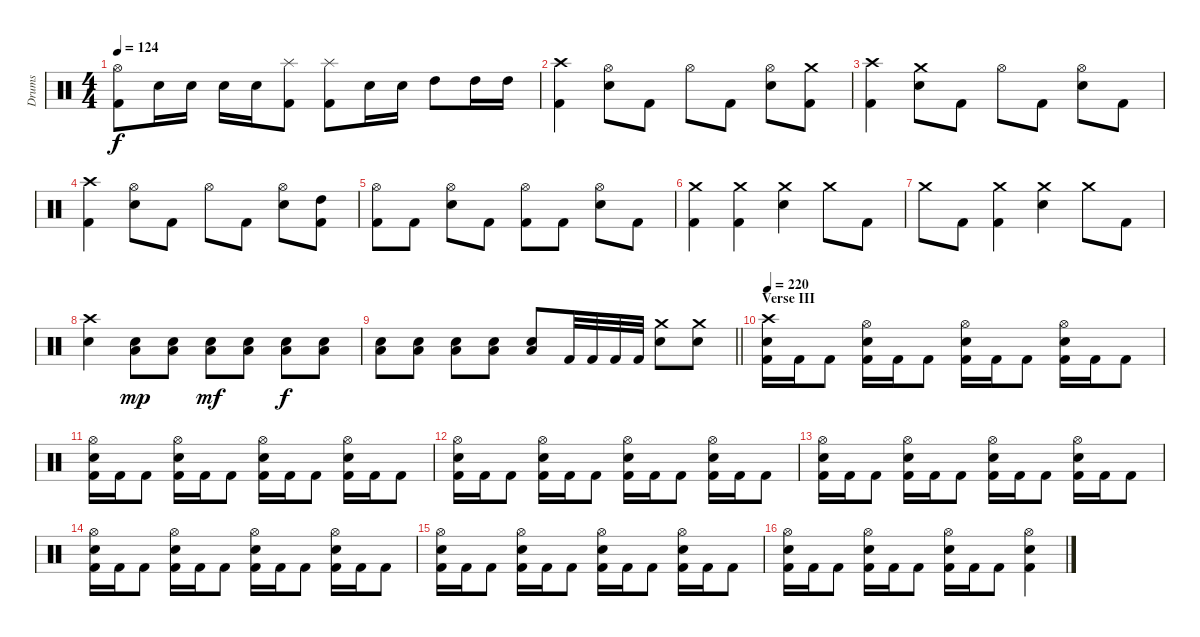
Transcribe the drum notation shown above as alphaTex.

\track ("Drums" "Drums") {instrument percussion}
\staff {score}
\articulation defaults
\ts (4 4)
\tempo 124
\clef neutral
\ks c
("Hi-Hat (open)" "Kick (hit) 2").8{dy f} "Snare (hit) 2".16 "Snare (hit) 2".16 "Snare (hit) 2".16 "Snare (hit) 2".16 ("Splash (hit)" "Kick (hit) 2").8 ("Splash (hit)" "Kick (hit) 2").8 "Snare (hit) 2".16 "Snare (hit) 2".16 "High Tom (hit)".8 "High Tom (hit)".16 "High Tom (hit)".16 |
("Crash high (hit)" "Kick (hit) 2").4 ("Hi-Hat (open)" "Snare (hit) 2").8 "Kick (hit) 2".8 "Hi-Hat (open)".8 "Kick (hit) 2".8 ("Hi-Hat (open)" "Snare (hit) 2").8 ("Crash medium (hit)" "Kick (hit) 2").8 |
("Crash high (hit)" "Kick (hit) 2").4 ("Crash medium (hit)" "Snare (hit) 2").8 "Kick (hit) 2".8 "Hi-Hat (open)".8 "Kick (hit) 2".8 ("Hi-Hat (open)" "Snare (hit) 2").8 "Kick (hit) 2".8 |
("Crash high (hit)" "Kick (hit) 2").4 ("Hi-Hat (open)" "Snare (hit) 2").8 "Kick (hit) 2".8 "Hi-Hat (open)".8 "Kick (hit) 2".8 ("Hi-Hat (open)" "Snare (hit) 2").8 ("High Tom (hit)" "Kick (hit) 2").8 |
("Hi-Hat (open)" "Kick (hit) 2").8 "Kick (hit) 2".8 ("Hi-Hat (open)" "Snare (hit) 2").8 "Kick (hit) 2".8 ("Hi-Hat (open)" "Kick (hit) 2").8 "Kick (hit) 2".8 ("Hi-Hat (open)" "Snare (hit) 2").8 "Kick (hit) 2".8 |
("Crash medium (hit)" "Kick (hit) 2").4 ("Crash medium (hit)" "Kick (hit) 2").4 ("Crash medium (hit)" "Snare (hit) 2").4 "Crash medium (hit)".8 "Kick (hit) 2".8 |
"Crash medium (hit)".8 "Kick (hit) 2".8 ("Crash medium (hit)" "Kick (hit) 2").4 ("Crash medium (hit)" "Snare (hit) 2").4 "Crash medium (hit)".8 "Kick (hit) 2".8 |
("Crash high (hit)" "Snare (hit) 2").4 ("Snare (hit) 2" "Low Tom (hit)").8{dy mp} ("Snare (hit) 2" "Low Tom (hit)").8 ("Snare (hit) 2" "Low Tom (hit)").8{dy mf} ("Snare (hit) 2" "Low Tom (hit)").8 ("Snare (hit) 2" "Low Tom (hit)").8{dy f} ("Snare (hit) 2" "Low Tom (hit)").8 |
\barLineRight lightlight
("Snare (hit) 2" "Low Tom (hit)").8 ("Snare (hit) 2" "Low Tom (hit)").8 ("Snare (hit) 2" "Low Tom (hit)").8 ("Snare (hit) 2" "Low Tom (hit)").8 ("Snare (hit) 2" "Low Tom (hit)").8 "Kick (hit) 2".32 "Kick (hit) 2".32 "Kick (hit) 2".32 "Kick (hit) 2".32 ("Crash medium (hit)" "Snare (hit) 2").8 ("Crash medium (hit)" "Snare (hit) 2").8 |
\section ("" "Verse III")
\tempo 220
("Crash high (hit)" "Snare (hit) 2" "Kick (hit) 2").16 "Kick (hit) 2".16 "Kick (hit) 2".8 ("Hi-Hat (open)" "Snare (hit) 2" "Kick (hit) 2").16 "Kick (hit) 2".16 "Kick (hit) 2".8 ("Hi-Hat (open)" "Snare (hit) 2" "Kick (hit) 2").16 "Kick (hit) 2".16 "Kick (hit) 2".8 ("Hi-Hat (open)" "Snare (hit) 2" "Kick (hit) 2").16 "Kick (hit) 2".16 "Kick (hit) 2".8 |
("Hi-Hat (open)" "Snare (hit) 2" "Kick (hit) 2").16 "Kick (hit) 2".16 "Kick (hit) 2".8 ("Hi-Hat (open)" "Snare (hit) 2" "Kick (hit) 2").16 "Kick (hit) 2".16 "Kick (hit) 2".8 ("Hi-Hat (open)" "Snare (hit) 2" "Kick (hit) 2").16 "Kick (hit) 2".16 "Kick (hit) 2".8 ("Hi-Hat (open)" "Snare (hit) 2" "Kick (hit) 2").16 "Kick (hit) 2".16 "Kick (hit) 2".8 |
("Hi-Hat (open)" "Snare (hit) 2" "Kick (hit) 2").16 "Kick (hit) 2".16 "Kick (hit) 2".8 ("Hi-Hat (open)" "Snare (hit) 2" "Kick (hit) 2").16 "Kick (hit) 2".16 "Kick (hit) 2".8 ("Hi-Hat (open)" "Snare (hit) 2" "Kick (hit) 2").16 "Kick (hit) 2".16 "Kick (hit) 2".8 ("Hi-Hat (open)" "Snare (hit) 2" "Kick (hit) 2").16 "Kick (hit) 2".16 "Kick (hit) 2".8 |
("Hi-Hat (open)" "Snare (hit) 2" "Kick (hit) 2").16 "Kick (hit) 2".16 "Kick (hit) 2".8 ("Hi-Hat (open)" "Snare (hit) 2" "Kick (hit) 2").16 "Kick (hit) 2".16 "Kick (hit) 2".8 ("Hi-Hat (open)" "Snare (hit) 2" "Kick (hit) 2").16 "Kick (hit) 2".16 "Kick (hit) 2".8 ("Hi-Hat (open)" "Snare (hit) 2" "Kick (hit) 2").16 "Kick (hit) 2".16 "Kick (hit) 2".8 |
("Hi-Hat (open)" "Snare (hit) 2" "Kick (hit) 2").16 "Kick (hit) 2".16 "Kick (hit) 2".8 ("Hi-Hat (open)" "Snare (hit) 2" "Kick (hit) 2").16 "Kick (hit) 2".16 "Kick (hit) 2".8 ("Hi-Hat (open)" "Snare (hit) 2" "Kick (hit) 2").16 "Kick (hit) 2".16 "Kick (hit) 2".8 ("Hi-Hat (open)" "Snare (hit) 2" "Kick (hit) 2").16 "Kick (hit) 2".16 "Kick (hit) 2".8 |
("Hi-Hat (open)" "Snare (hit) 2" "Kick (hit) 2").16 "Kick (hit) 2".16 "Kick (hit) 2".8 ("Hi-Hat (open)" "Snare (hit) 2" "Kick (hit) 2").16 "Kick (hit) 2".16 "Kick (hit) 2".8 ("Hi-Hat (open)" "Snare (hit) 2" "Kick (hit) 2").16 "Kick (hit) 2".16 "Kick (hit) 2".8 ("Hi-Hat (open)" "Snare (hit) 2" "Kick (hit) 2").16 "Kick (hit) 2".16 "Kick (hit) 2".8 |
("Hi-Hat (open)" "Snare (hit) 2" "Kick (hit) 2").16 "Kick (hit) 2".16 "Kick (hit) 2".8 ("Hi-Hat (open)" "Snare (hit) 2" "Kick (hit) 2").16 "Kick (hit) 2".16 "Kick (hit) 2".8 ("Hi-Hat (open)" "Snare (hit) 2" "Kick (hit) 2").16 "Kick (hit) 2".16 "Kick (hit) 2".8 ("Hi-Hat (open)" "Snare (hit) 2" "Kick (hit) 2").4
